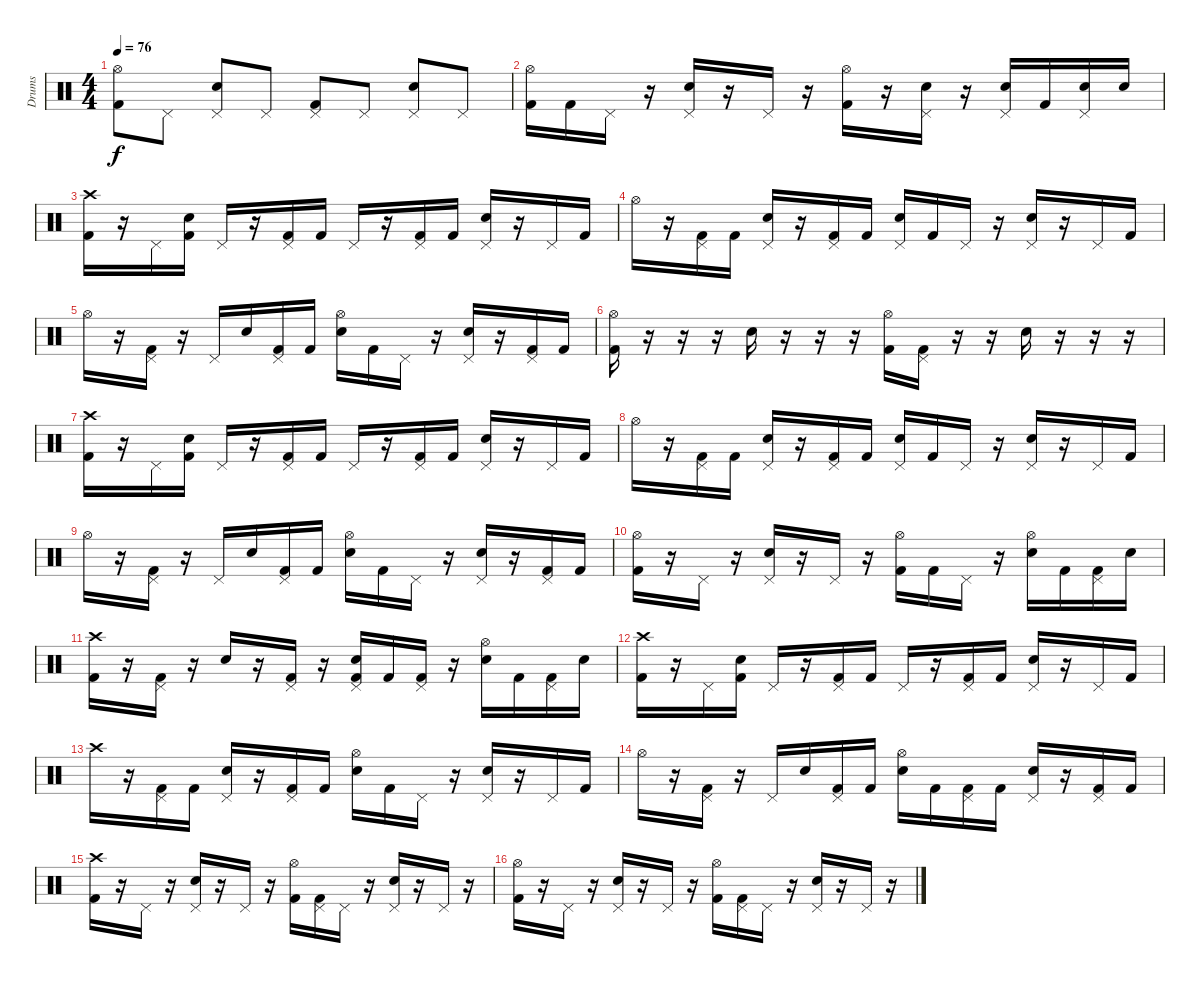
\track ("Drums" "Drums") {instrument percussion}
\staff {score}
\articulation defaults
\ts (4 4)
\tempo 76
\clef neutral
\ks c
("Kick (hit) 2" "Hi-Hat (open)").8{dy f} "Pedal Hi-Hat (hit)".8 ("Snare (hit) 2" "Pedal Hi-Hat (hit)").8 "Pedal Hi-Hat (hit)".8 ("Kick (hit) 2" "Pedal Hi-Hat (hit)").8 "Pedal Hi-Hat (hit)".8 ("Snare (hit) 2" "Pedal Hi-Hat (hit)").8 "Pedal Hi-Hat (hit)".8 |
("Kick (hit) 2" "Hi-Hat (open)").16 "Kick (hit) 2".16 "Pedal Hi-Hat (hit)".16 r.16 ("Snare (hit) 2" "Pedal Hi-Hat (hit)").16 r.16 "Pedal Hi-Hat (hit)".16 r.16 ("Kick (hit) 2" "Hi-Hat (open)").16 r.16 ("Snare (hit) 2" "Pedal Hi-Hat (hit)").16 r.16 ("Snare (hit) 2" "Pedal Hi-Hat (hit)").16 "Kick (hit) 2".16 ("Snare (hit) 2" "Pedal Hi-Hat (hit)").16 "Snare (hit) 2".16 |
("Kick (hit) 2" "Crash high (hit)").16 r.16 "Pedal Hi-Hat (hit)".16 ("Kick (hit) 2" "Snare (hit) 2").16 "Pedal Hi-Hat (hit)".16 r.16 ("Kick (hit) 2" "Pedal Hi-Hat (hit)").16 "Kick (hit) 2".16 "Pedal Hi-Hat (hit)".16 r.16 ("Kick (hit) 2" "Pedal Hi-Hat (hit)").16 "Kick (hit) 2".16 ("Snare (hit) 2" "Pedal Hi-Hat (hit)").16 r.16 "Pedal Hi-Hat (hit)".16 "Kick (hit) 2".16 |
"Hi-Hat (open)".16 r.16 ("Kick (hit) 2" "Pedal Hi-Hat (hit)").16 "Kick (hit) 2".16 ("Snare (hit) 2" "Pedal Hi-Hat (hit)").16 r.16 ("Kick (hit) 2" "Pedal Hi-Hat (hit)").16 "Kick (hit) 2".16 ("Snare (hit) 2" "Pedal Hi-Hat (hit)").16 "Kick (hit) 2".16 "Pedal Hi-Hat (hit)".16 r.16 ("Snare (hit) 2" "Pedal Hi-Hat (hit)").16 r.16 "Pedal Hi-Hat (hit)".16 "Kick (hit) 2".16 |
"Hi-Hat (open)".16 r.16 ("Kick (hit) 2" "Pedal Hi-Hat (hit)").16 r.16 "Pedal Hi-Hat (hit)".16 "Snare (hit) 2".16 ("Kick (hit) 2" "Pedal Hi-Hat (hit)").16 "Kick (hit) 2".16 ("Snare (hit) 2" "Hi-Hat (open)").16 "Kick (hit) 2".16 "Pedal Hi-Hat (hit)".16 r.16 ("Snare (hit) 2" "Pedal Hi-Hat (hit)").16 r.16 ("Kick (hit) 2" "Pedal Hi-Hat (hit)").16 "Kick (hit) 2".16 |
("Kick (hit) 2" "Hi-Hat (open)").16 r.16 r.16 r.16 "Snare (hit) 2".16 r.16 r.16 r.16 ("Kick (hit) 2" "Hi-Hat (open)").16 ("Kick (hit) 2" "Pedal Hi-Hat (hit)").16 r.16 r.16 "Snare (hit) 2".16 r.16 r.16 r.16 |
("Kick (hit) 2" "Crash high (hit)").16 r.16 "Pedal Hi-Hat (hit)".16 ("Kick (hit) 2" "Snare (hit) 2").16 "Pedal Hi-Hat (hit)".16 r.16 ("Kick (hit) 2" "Pedal Hi-Hat (hit)").16 "Kick (hit) 2".16 "Pedal Hi-Hat (hit)".16 r.16 ("Kick (hit) 2" "Pedal Hi-Hat (hit)").16 "Kick (hit) 2".16 ("Snare (hit) 2" "Pedal Hi-Hat (hit)").16 r.16 "Pedal Hi-Hat (hit)".16 "Kick (hit) 2".16 |
"Hi-Hat (open)".16 r.16 ("Kick (hit) 2" "Pedal Hi-Hat (hit)").16 "Kick (hit) 2".16 ("Snare (hit) 2" "Pedal Hi-Hat (hit)").16 r.16 ("Kick (hit) 2" "Pedal Hi-Hat (hit)").16 "Kick (hit) 2".16 ("Snare (hit) 2" "Pedal Hi-Hat (hit)").16 "Kick (hit) 2".16 "Pedal Hi-Hat (hit)".16 r.16 ("Snare (hit) 2" "Pedal Hi-Hat (hit)").16 r.16 "Pedal Hi-Hat (hit)".16 "Kick (hit) 2".16 |
"Hi-Hat (open)".16 r.16 ("Kick (hit) 2" "Pedal Hi-Hat (hit)").16 r.16 "Pedal Hi-Hat (hit)".16 "Snare (hit) 2".16 ("Kick (hit) 2" "Pedal Hi-Hat (hit)").16 "Kick (hit) 2".16 ("Snare (hit) 2" "Hi-Hat (open)").16 "Kick (hit) 2".16 "Pedal Hi-Hat (hit)".16 r.16 ("Snare (hit) 2" "Pedal Hi-Hat (hit)").16 r.16 ("Kick (hit) 2" "Pedal Hi-Hat (hit)").16 "Kick (hit) 2".16 |
("Kick (hit) 2" "Hi-Hat (open)").16 r.16 "Pedal Hi-Hat (hit)".16 r.16 ("Snare (hit) 2" "Pedal Hi-Hat (hit)").16 r.16 "Pedal Hi-Hat (hit)".16 r.16 ("Kick (hit) 2" "Hi-Hat (open)").16 "Kick (hit) 2".16 "Pedal Hi-Hat (hit)".16 r.16 ("Snare (hit) 2" "Hi-Hat (open)").16 "Kick (hit) 2".16 ("Kick (hit) 2" "Pedal Hi-Hat (hit)").16 "Snare (hit) 2".16 |
("Kick (hit) 2" "Crash high (hit)").16 r.16 ("Kick (hit) 2" "Pedal Hi-Hat (hit)").16 r.16 "Snare (hit) 2".16 r.16 ("Kick (hit) 2" "Pedal Hi-Hat (hit)").16 r.16 ("Kick (hit) 2" "Snare (hit) 2" "Pedal Hi-Hat (hit)").16 "Kick (hit) 2".16 ("Kick (hit) 2" "Pedal Hi-Hat (hit)").16 r.16 ("Snare (hit) 2" "Hi-Hat (open)").16 "Kick (hit) 2".16 ("Kick (hit) 2" "Pedal Hi-Hat (hit)").16 "Snare (hit) 2".16 |
("Kick (hit) 2" "Crash high (hit)").16 r.16 "Pedal Hi-Hat (hit)".16 ("Kick (hit) 2" "Snare (hit) 2").16 "Pedal Hi-Hat (hit)".16 r.16 ("Kick (hit) 2" "Pedal Hi-Hat (hit)").16 "Kick (hit) 2".16 "Pedal Hi-Hat (hit)".16 r.16 ("Kick (hit) 2" "Pedal Hi-Hat (hit)").16 "Kick (hit) 2".16 ("Snare (hit) 2" "Pedal Hi-Hat (hit)").16 r.16 "Pedal Hi-Hat (hit)".16 "Kick (hit) 2".16 |
"Crash high (hit)".16 r.16 ("Kick (hit) 2" "Pedal Hi-Hat (hit)").16 "Kick (hit) 2".16 ("Snare (hit) 2" "Pedal Hi-Hat (hit)").16 r.16 ("Kick (hit) 2" "Pedal Hi-Hat (hit)").16 "Kick (hit) 2".16 ("Snare (hit) 2" "Hi-Hat (open)").16 "Kick (hit) 2".16 "Pedal Hi-Hat (hit)".16 r.16 ("Snare (hit) 2" "Pedal Hi-Hat (hit)").16 r.16 "Pedal Hi-Hat (hit)".16 "Kick (hit) 2".16 |
"Hi-Hat (open)".16 r.16 ("Kick (hit) 2" "Pedal Hi-Hat (hit)").16 r.16 "Pedal Hi-Hat (hit)".16 "Snare (hit) 2".16 ("Kick (hit) 2" "Pedal Hi-Hat (hit)").16 "Kick (hit) 2".16 ("Snare (hit) 2" "Hi-Hat (open)").16 "Kick (hit) 2".16 ("Kick (hit) 2" "Pedal Hi-Hat (hit)").16 "Kick (hit) 2".16 ("Snare (hit) 2" "Pedal Hi-Hat (hit)").16 r.16 ("Kick (hit) 2" "Pedal Hi-Hat (hit)").16 "Kick (hit) 2".16 |
("Kick (hit) 2" "Crash high (hit)").16 r.16 "Pedal Hi-Hat (hit)".16 r.16 ("Snare (hit) 2" "Pedal Hi-Hat (hit)").16 r.16 "Pedal Hi-Hat (hit)".16 r.16 ("Kick (hit) 2" "Hi-Hat (open)").16 ("Kick (hit) 2" "Pedal Hi-Hat (hit)").16 "Pedal Hi-Hat (hit)".16 r.16 ("Snare (hit) 2" "Pedal Hi-Hat (hit)").16 r.16 "Pedal Hi-Hat (hit)".16 r.16 |
("Kick (hit) 2" "Hi-Hat (open)").16 r.16 "Pedal Hi-Hat (hit)".16 r.16 ("Snare (hit) 2" "Pedal Hi-Hat (hit)").16 r.16 "Pedal Hi-Hat (hit)".16 r.16 ("Kick (hit) 2" "Hi-Hat (open)").16 ("Kick (hit) 2" "Pedal Hi-Hat (hit)").16 "Pedal Hi-Hat (hit)".16 r.16 ("Snare (hit) 2" "Pedal Hi-Hat (hit)").16 r.16 "Pedal Hi-Hat (hit)".16 r.16
